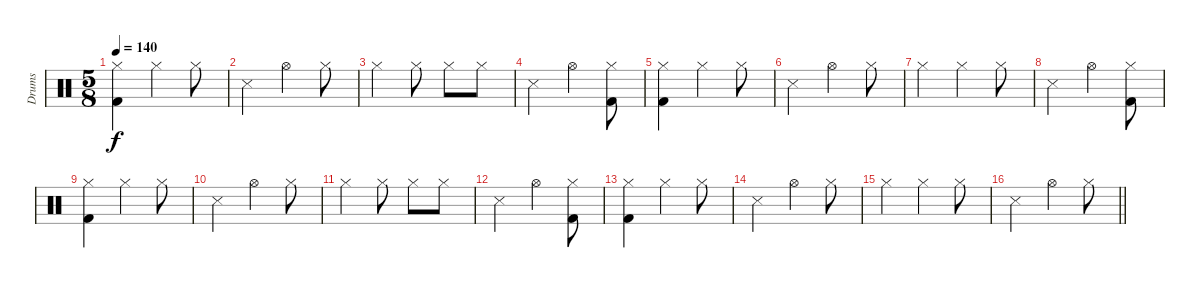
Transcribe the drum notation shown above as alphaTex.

\track ("Drums" "Drums") {instrument percussion}
\staff {score}
\articulation defaults
\ts (5 8)
\tempo 140
\clef neutral
\ks c
("Hi-Hat (closed)" "Kick (hit) 2").4{dy f} "Hi-Hat (closed)".4 "Hi-Hat (closed)".8 |
"Snare (side stick) 3".4 "Hi-Hat (open)".4 "Hi-Hat (closed)".8 |
"Hi-Hat (closed)".4 "Hi-Hat (closed)".8 "Hi-Hat (closed)".8 "Hi-Hat (closed)".8 |
"Snare (side stick) 3".4 "Hi-Hat (open)".4 ("Hi-Hat (closed)" "Kick (hit) 2").8 |
("Hi-Hat (closed)" "Kick (hit) 2").4 "Hi-Hat (closed)".4 "Hi-Hat (closed)".8 |
"Snare (side stick) 3".4 "Hi-Hat (open)".4 "Hi-Hat (closed)".8 |
"Hi-Hat (closed)".4 "Hi-Hat (closed)".4 "Hi-Hat (closed)".8 |
"Snare (side stick) 3".4 "Hi-Hat (open)".4 ("Hi-Hat (closed)" "Kick (hit) 2").8 |
("Hi-Hat (closed)" "Kick (hit) 2").4 "Hi-Hat (closed)".4 "Hi-Hat (closed)".8 |
"Snare (side stick) 3".4 "Hi-Hat (open)".4 "Hi-Hat (closed)".8 |
"Hi-Hat (closed)".4 "Hi-Hat (closed)".8 "Hi-Hat (closed)".8 "Hi-Hat (closed)".8 |
"Snare (side stick) 3".4 "Hi-Hat (open)".4 ("Hi-Hat (closed)" "Kick (hit) 2").8 |
("Hi-Hat (closed)" "Kick (hit) 2").4 "Hi-Hat (closed)".4 "Hi-Hat (closed)".8 |
"Snare (side stick) 3".4 "Hi-Hat (open)".4 "Hi-Hat (closed)".8 |
"Hi-Hat (closed)".4 "Hi-Hat (closed)".4 "Hi-Hat (closed)".8 |
\barLineRight lightlight "Snare (side stick) 3".4 "Hi-Hat (open)".4 "Hi-Hat (closed)".8
